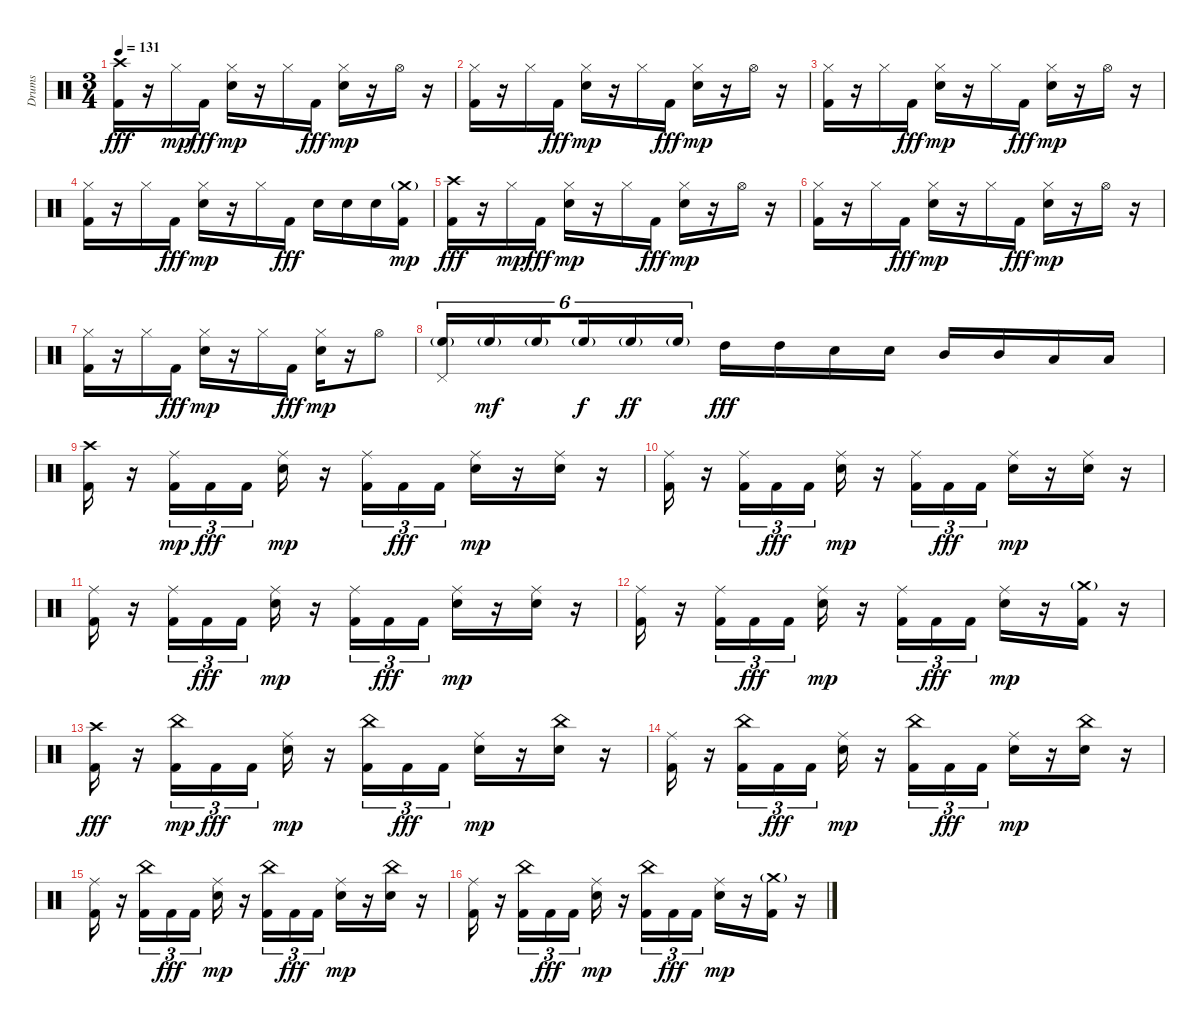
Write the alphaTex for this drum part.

\track ("Drums" "Drums") {instrument percussion}
\staff {score}
\articulation defaults
\ts (3 4)
\tempo 131
\clef neutral
\ks c
("Kick (hit) 2" "Crash high (hit)").16{dy fff} r.16 "Hi-Hat (closed)".16{dy mp} "Kick (hit) 2".16{dy fff} ("Electric Snare (hit)" "Hi-Hat (closed)").16{dy mp} r.16 "Hi-Hat (closed)".16 "Kick (hit) 2".16{dy fff} ("Electric Snare (hit)" "Hi-Hat (closed)").16{dy mp} r.16 "Hi-Hat (open)".16 r.16 |
("Kick (hit) 2" "Hi-Hat (closed)").16 r.16 "Hi-Hat (closed)".16 "Kick (hit) 2".16{dy fff} ("Electric Snare (hit)" "Hi-Hat (closed)").16{dy mp} r.16 "Hi-Hat (closed)".16 "Kick (hit) 2".16{dy fff} ("Electric Snare (hit)" "Hi-Hat (closed)").16{dy mp} r.16 "Hi-Hat (open)".16 r.16 |
("Kick (hit) 2" "Hi-Hat (closed)").16 r.16 "Hi-Hat (closed)".16 "Kick (hit) 2".16{dy fff} ("Electric Snare (hit)" "Hi-Hat (closed)").16{dy mp} r.16 "Hi-Hat (closed)".16 "Kick (hit) 2".16{dy fff} ("Electric Snare (hit)" "Hi-Hat (closed)").16{dy mp} r.16 "Hi-Hat (open)".16 r.16 |
("Kick (hit) 2" "Hi-Hat (closed)").16 r.16 "Hi-Hat (closed)".16 "Kick (hit) 2".16{dy fff} ("Electric Snare (hit)" "Hi-Hat (closed)").16{dy mp} r.16 "Hi-Hat (closed)".16 "Kick (hit) 2".16{dy fff} "Electric Snare (hit)".16 "Electric Snare (hit)".16 "Electric Snare (hit)".16 ("Kick (hit) 2" "Crash medium (hit)"{g}).16{dy mp} |
("Kick (hit) 2" "Crash high (hit)").16{dy fff} r.16 "Hi-Hat (closed)".16{dy mp} "Kick (hit) 2".16{dy fff} ("Electric Snare (hit)" "Hi-Hat (closed)").16{dy mp} r.16 "Hi-Hat (closed)".16 "Kick (hit) 2".16{dy fff} ("Electric Snare (hit)" "Hi-Hat (closed)").16{dy mp} r.16 "Hi-Hat (open)".16 r.16 |
("Kick (hit) 2" "Hi-Hat (closed)").16 r.16 "Hi-Hat (closed)".16 "Kick (hit) 2".16{dy fff} ("Electric Snare (hit)" "Hi-Hat (closed)").16{dy mp} r.16 "Hi-Hat (closed)".16 "Kick (hit) 2".16{dy fff} ("Electric Snare (hit)" "Hi-Hat (closed)").16{dy mp} r.16 "Hi-Hat (open)".16 r.16 |
("Kick (hit) 2" "Hi-Hat (closed)").16 r.16 "Hi-Hat (closed)".16 "Kick (hit) 2".16{dy fff} ("Electric Snare (hit)" "Hi-Hat (closed)").16{dy mp} r.16 "Hi-Hat (closed)".16 "Kick (hit) 2".16{dy fff} ("Electric Snare (hit)" "Hi-Hat (closed)").16{dy mp} r.16 "Hi-Hat (open)".8 |
("High Floor Tom (hit)"{g} "Pedal Hi-Hat (hit)").16{tu (6 4)} "High Floor Tom (hit)"{g}.16{tu (6 4) dy mf} "High Floor Tom (hit)"{g}.16{tu (6 4) beam splitsecondary} "High Floor Tom (hit)"{g}.16{tu (6 4) dy f} "High Floor Tom (hit)"{g}.16{tu (6 4) dy ff} "High Floor Tom (hit)"{g}.16{tu (6 4)} "High Tom (hit)".16{dy fff} "High Tom (hit)".16 "Electric Snare (hit)".16 "Electric Snare (hit)".16 "Mid Tom (hit)".16 "Mid Tom (hit)".16 "Low Tom (hit)".16 "Low Tom (hit)".16 |
("Kick (hit) 2" "Crash high (hit)").16 r.16 ("Kick (hit) 2" "Ride (middle)").16{tu (3 2) dy mp} "Kick (hit) 2".16{tu (3 2) dy fff} "Kick (hit) 2".16{tu (3 2)} ("Electric Snare (hit)" "Ride (middle)").16{dy mp} r.16 ("Kick (hit) 2" "Ride (middle)").16{tu (3 2)} "Kick (hit) 2".16{tu (3 2) dy fff} "Kick (hit) 2".16{tu (3 2)} ("Electric Snare (hit)" "Ride (middle)").16{dy mp} r.16 ("Electric Snare (hit)" "Ride (middle)").16 r.16 |
("Kick (hit) 2" "Ride (middle)").16 r.16 ("Kick (hit) 2" "Ride (middle)").16{tu (3 2)} "Kick (hit) 2".16{tu (3 2) dy fff} "Kick (hit) 2".16{tu (3 2)} ("Electric Snare (hit)" "Ride (middle)").16{dy mp} r.16 ("Kick (hit) 2" "Ride (middle)").16{tu (3 2)} "Kick (hit) 2".16{tu (3 2) dy fff} "Kick (hit) 2".16{tu (3 2)} ("Electric Snare (hit)" "Ride (middle)").16{dy mp} r.16 ("Electric Snare (hit)" "Ride (middle)").16 r.16 |
("Kick (hit) 2" "Ride (middle)").16 r.16 ("Kick (hit) 2" "Ride (middle)").16{tu (3 2)} "Kick (hit) 2".16{tu (3 2) dy fff} "Kick (hit) 2".16{tu (3 2)} ("Electric Snare (hit)" "Ride (middle)").16{dy mp} r.16 ("Kick (hit) 2" "Ride (middle)").16{tu (3 2)} "Kick (hit) 2".16{tu (3 2) dy fff} "Kick (hit) 2".16{tu (3 2)} ("Electric Snare (hit)" "Ride (middle)").16{dy mp} r.16 ("Electric Snare (hit)" "Ride (middle)").16 r.16 |
("Kick (hit) 2" "Ride (middle)").16 r.16 ("Kick (hit) 2" "Ride (middle)").16{tu (3 2)} "Kick (hit) 2".16{tu (3 2) dy fff} "Kick (hit) 2".16{tu (3 2)} ("Electric Snare (hit)" "Ride (middle)").16{dy mp} r.16 ("Kick (hit) 2" "Ride (middle)").16{tu (3 2)} "Kick (hit) 2".16{tu (3 2) dy fff} "Kick (hit) 2".16{tu (3 2)} ("Electric Snare (hit)" "Ride (middle)").16{dy mp} r.16 ("Kick (hit) 2" "Crash medium (hit)"{g}).16 r.16 |
("Kick (hit) 2" "Crash high (hit)").16{dy fff} r.16 ("Kick (hit) 2" "China (hit)").16{tu (3 2) dy mp} "Kick (hit) 2".16{tu (3 2) dy fff} "Kick (hit) 2".16{tu (3 2)} ("Electric Snare (hit)" "Ride (middle)").16{dy mp} r.16 ("Kick (hit) 2" "China (hit)").16{tu (3 2)} "Kick (hit) 2".16{tu (3 2) dy fff} "Kick (hit) 2".16{tu (3 2)} ("Electric Snare (hit)" "Ride (middle)").16{dy mp} r.16 ("Electric Snare (hit)" "China (hit)").16 r.16 |
("Kick (hit) 2" "Ride (middle)").16 r.16 ("Kick (hit) 2" "China (hit)").16{tu (3 2)} "Kick (hit) 2".16{tu (3 2) dy fff} "Kick (hit) 2".16{tu (3 2)} ("Electric Snare (hit)" "Ride (middle)").16{dy mp} r.16 ("Kick (hit) 2" "China (hit)").16{tu (3 2)} "Kick (hit) 2".16{tu (3 2) dy fff} "Kick (hit) 2".16{tu (3 2)} ("Electric Snare (hit)" "Ride (middle)").16{dy mp} r.16 ("Electric Snare (hit)" "China (hit)").16 r.16 |
("Kick (hit) 2" "Ride (middle)").16 r.16 ("Kick (hit) 2" "China (hit)").16{tu (3 2)} "Kick (hit) 2".16{tu (3 2) dy fff} "Kick (hit) 2".16{tu (3 2)} ("Electric Snare (hit)" "Ride (middle)").16{dy mp} r.16 ("Kick (hit) 2" "China (hit)").16{tu (3 2)} "Kick (hit) 2".16{tu (3 2) dy fff} "Kick (hit) 2".16{tu (3 2)} ("Electric Snare (hit)" "Ride (middle)").16{dy mp} r.16 ("Electric Snare (hit)" "China (hit)").16 r.16 |
("Kick (hit) 2" "Ride (middle)").16 r.16 ("Kick (hit) 2" "China (hit)").16{tu (3 2)} "Kick (hit) 2".16{tu (3 2) dy fff} "Kick (hit) 2".16{tu (3 2)} ("Electric Snare (hit)" "Ride (middle)").16{dy mp} r.16 ("Kick (hit) 2" "China (hit)").16{tu (3 2)} "Kick (hit) 2".16{tu (3 2) dy fff} "Kick (hit) 2".16{tu (3 2)} ("Electric Snare (hit)" "Ride (middle)").16{dy mp} r.16 ("Kick (hit) 2" "Crash medium (hit)"{g}).16 r.16
